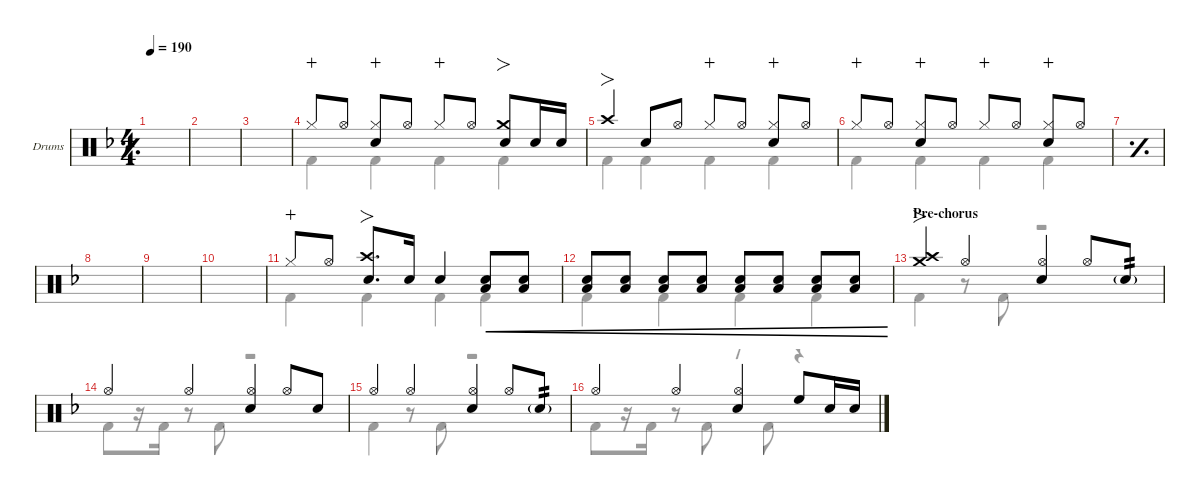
\defaultSystemsLayout 4
\hideDynamics
\bracketExtendMode nobrackets
\firstSystemTrackNameOrientation horizontal
\track ("Drums" "Drums") {defaultSystemsLayout 4 instrument percussion}
\staff {score}
\articulation defaults
\voice
\ts (4 4)
\tempo 190
\clef neutral
\simile simple
\scale
0.266618
\ks dminor
|
\scale
0.244461 |
\scale
0.24446 |
\simile none
\scale
0.244461 "Hi-Hat (closed)"{acc forcenatural}.8{dy mp wahc beam Up} "Hi-Hat (open)"{acc forcenatural}.8{dy f beam Up} ("Hi-Hat (closed)"{acc forcenatural} "Snare (hit) 2"{acc forcenatural}).8{wahc beam Up} "Hi-Hat (open)"{acc forcenatural}.8{beam Up} "Hi-Hat (closed)"{acc forcenatural}.8{dy mp wahc beam Up} "Hi-Hat (open)"{acc forcenatural}.8{dy f beam Up beam split} ("Snare (hit) 2"{acc forcenatural} "Crash medium (hit)"{acc forcenatural}).8{fo beam Up} "Snare (hit) 2"{acc forcenatural}.16{beam Up} "Snare (hit) 2"{acc forcenatural}.16{beam Up} |
\scale
0.266618 "Crash high (hit)"{acc forcenatural}.4{fo beam Up} "Snare (hit) 2"{acc forcenatural}.8{beam Up} "Hi-Hat (open)"{acc forcenatural}.8{beam Up} "Hi-Hat (closed)"{acc forcenatural}.8{dy mp wahc beam Up} "Hi-Hat (open)"{acc forcenatural}.8{dy f beam Up} ("Hi-Hat (closed)"{acc forcenatural} "Snare (hit) 2"{acc forcenatural}).8{wahc beam Up} "Hi-Hat (open)"{acc forcenatural}.8{beam Up} |
\scale
0.244461 "Hi-Hat (closed)"{acc forcenatural}.8{dy mp wahc beam Up} "Hi-Hat (open)"{acc forcenatural}.8{dy f beam Up} ("Hi-Hat (closed)"{acc forcenatural} "Snare (hit) 2"{acc forcenatural}).8{wahc beam Up} "Hi-Hat (open)"{acc forcenatural}.8{beam Up} "Hi-Hat (closed)"{acc forcenatural}.8{dy mp wahc beam Up} "Hi-Hat (open)"{acc forcenatural}.8{dy f beam Up} ("Hi-Hat (closed)"{acc forcenatural} "Snare (hit) 2"{acc forcenatural}).8{wahc beam Up} "Hi-Hat (open)"{acc forcenatural}.8{beam Up} |
\simile simple
\scale
0.24446 |
\scale
0.244461 |
\scale
0.266618 |
\scale
0.244461 |
\simile none
\scale
0.24446 "Hi-Hat (closed)"{acc forcenatural}.8{dy mp wahc beam Up} "Hi-Hat (open)"{acc forcenatural}.8{dy f beam Up beam split} ("Snare (hit) 2"{acc forcenatural} "Crash high (hit)"{acc forcenatural}).8{fo d beam Up} "Snare (hit) 2"{acc forcenatural}.16{beam Up} "Snare (hit) 2"{acc forcenatural}.4{beam Up} ("Snare (hit) 2"{acc forcenatural} "Low Tom (hit)"{acc forcenatural}).8{cre beam Up} ("Snare (hit) 2"{acc forcenatural} "Low Tom (hit)"{acc forcenatural}).8{cre beam Up} |
\scale
0.244461 ("Snare (hit) 2"{acc forcenatural} "Low Tom (hit)"{acc forcenatural}).8{cre beam Up} ("Snare (hit) 2"{acc forcenatural} "Low Tom (hit)"{acc forcenatural}).8{cre beam Up} ("Snare (hit) 2"{acc forcenatural} "Low Tom (hit)"{acc forcenatural}).8{cre beam Up} ("Snare (hit) 2"{acc forcenatural} "Low Tom (hit)"{acc forcenatural}).8{cre beam Up} ("Snare (hit) 2"{acc forcenatural} "Low Tom (hit)"{acc forcenatural}).8{cre beam Up} ("Snare (hit) 2"{acc forcenatural} "Low Tom (hit)"{acc forcenatural}).8{cre beam Up} ("Snare (hit) 2"{acc forcenatural} "Low Tom (hit)"{acc forcenatural}).8{cre beam Up} ("Snare (hit) 2"{acc forcenatural} "Low Tom (hit)"{acc forcenatural}).8{cre beam Up} |
\section ("" "Pre-chorus")
\scale
0.266618 ("Crash high (hit)"{acc forcenatural} "Crash medium (hit)"{acc forcenatural}).4{fo beam Up} "Hi-Hat (open)"{acc forcenatural}.4{beam Up} ("Hi-Hat (open)"{acc forcenatural} "Snare (hit) 2"{acc forcenatural}).4{beam Up} "Hi-Hat (open)"{acc forcenatural}.8{beam Up} "Snare (hit) 2"{g acc forcenatural}.8{tp 2 dy mf beam Up} |
\scale
0.244461 "Hi-Hat (open)"{acc forcenatural}.4{dy f beam Up} "Hi-Hat (open)"{acc forcenatural}.4{beam Up} ("Hi-Hat (open)"{acc forcenatural} "Snare (hit) 2"{acc forcenatural}).4{beam Up} "Hi-Hat (open)"{acc forcenatural}.8{beam Up} "Snare (hit) 2"{acc forcenatural}.8{beam Up} |
\scale
0.24446 "Hi-Hat (open)"{acc forcenatural}.4{beam Up} "Hi-Hat (open)"{acc forcenatural}.4{beam Up} ("Hi-Hat (open)"{acc forcenatural} "Snare (hit) 2"{acc forcenatural}).4{beam Up} "Hi-Hat (open)"{acc forcenatural}.8{beam Up} "Snare (hit) 2"{g acc forcenatural}.8{tp 2 dy mf beam Up} |
\scale
0.244461 "Hi-Hat (open)"{acc forcenatural}.4{dy f beam Up} "Hi-Hat (open)"{acc forcenatural}.4{beam Up} ("Hi-Hat (open)"{acc forcenatural} "Snare (hit) 2"{acc forcenatural}).4{beam Up} "High Floor Tom (hit)"{acc forcenatural}.8{beam Up} "Snare (hit) 2"{acc forcenatural}.16{beam Up} "Snare (hit) 2"{acc forcenatural}.16{dy mf beam Up}
\voice
\clef neutral
\ottava regular
\simile simple
\scale
0.266618
\ks dminor
|
\scale
0.244461 |
\scale
0.24446 |
\simile none
\scale
0.244461 "Kick (hit) 2"{acc forcenatural}.4{beam Down} "Kick (hit) 2"{acc forcenatural}.4{beam Down} "Kick (hit) 2"{acc forcenatural}.4{beam Down} "Kick (hit) 2"{acc forcenatural}.4{beam Down} |
\scale
0.266618 "Kick (hit) 2"{acc forcenatural}.4{beam Down} "Kick (hit) 2"{acc forcenatural}.4{beam Down} "Kick (hit) 2"{acc forcenatural}.4{beam Down} "Kick (hit) 2"{acc forcenatural}.4{beam Down} |
\scale
0.244461 "Kick (hit) 2"{acc forcenatural}.4{beam Down} "Kick (hit) 2"{acc forcenatural}.4{beam Down} "Kick (hit) 2"{acc forcenatural}.4{beam Down} "Kick (hit) 2"{acc forcenatural}.4{beam Down} |
\simile simple
\scale
0.24446 |
\scale
0.244461 |
\scale
0.266618 |
\scale
0.244461 |
\simile none
\scale
0.24446 "Kick (hit) 2"{acc forcenatural}.4{beam Down} "Kick (hit) 2"{acc forcenatural}.4{beam Down} "Kick (hit) 2"{acc forcenatural}.4{beam Down} "Kick (hit) 2"{acc forcenatural}.4{beam Down} |
\scale
0.244461 "Kick (hit) 2"{acc forcenatural}.4{beam Down} "Kick (hit) 2"{acc forcenatural}.4{beam Down} "Kick (hit) 2"{acc forcenatural}.4{beam Down} "Kick (hit) 2"{acc forcenatural}.4{beam Down} |
\scale
0.266618 "Kick (hit) 2"{acc forcenatural}.4{beam Down} r.8{beam Down} "Kick (hit) 2"{acc forcenatural}.8{beam Down} r.2{beam Down} |
\scale
0.244461 "Kick (hit) 2"{acc forcenatural}.8{beam Down} r.16{beam Down} "Kick (hit) 2"{acc forcenatural}.16{beam Down beam split} r.8{beam Down beam split} "Kick (hit) 2"{acc forcenatural}.8{beam Down} r.2{beam Down} |
\scale
0.24446 "Kick (hit) 2"{acc forcenatural}.4{beam Down} r.8{beam Down} "Kick (hit) 2"{acc forcenatural}.8{beam Down} r.2{beam Down} |
\scale
0.244461 "Kick (hit) 2"{acc forcenatural}.8{beam Down} r.16{beam Down} "Kick (hit) 2"{acc forcenatural}.16{beam Down beam split} r.8{beam Down beam split} "Kick (hit) 2"{acc forcenatural}.8{beam Down} r.8{beam Down} "Kick (hit) 2"{acc forcenatural}.8{beam Down} r.4{beam Down}
